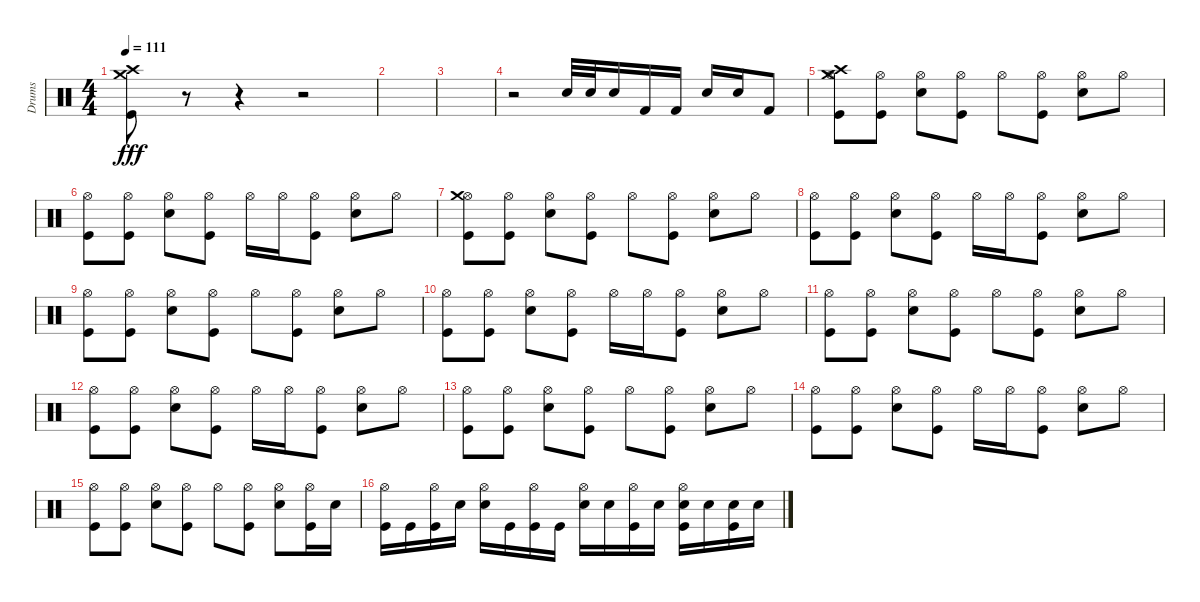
\track ("Drums" "Drums") {instrument percussion}
\staff {score}
\articulation defaults
\ts (4 4)
\tempo 111
\clef neutral
\ks c
("Crash high (hit)" "Crash medium (hit)" "Kick (hit)").8{dy fff} r.8 r.4 r.2 |
|
|
r.2 "Snare (hit) 2".32 "Snare (hit) 2".32 "Snare (hit) 2".16 "Kick (hit) 2".16 "Kick (hit) 2".16 "Snare (hit) 2".16 "Snare (hit) 2".16 "Kick (hit) 2".8 |
("Hi-Hat (open)" "Crash high (hit)" "Crash medium (hit)" "Kick (hit)").8 ("Hi-Hat (open)" "Kick (hit)").8 ("Hi-Hat (open)" "Snare (hit) 2").8 ("Hi-Hat (open)" "Kick (hit)").8 "Hi-Hat (open)".8 ("Hi-Hat (open)" "Kick (hit)").8 ("Hi-Hat (open)" "Snare (hit) 2").8 "Hi-Hat (open)".8 |
("Hi-Hat (open)" "Kick (hit)").8 ("Hi-Hat (open)" "Kick (hit)").8 ("Hi-Hat (open)" "Snare (hit) 2").8 ("Hi-Hat (open)" "Kick (hit)").8 "Hi-Hat (open)".16 "Hi-Hat (open)".16 ("Hi-Hat (open)" "Kick (hit)").8 ("Hi-Hat (open)" "Snare (hit) 2").8 "Hi-Hat (open)".8 |
("Hi-Hat (open)" "Crash medium (hit)" "Kick (hit)").8 ("Hi-Hat (open)" "Kick (hit)").8 ("Hi-Hat (open)" "Snare (hit) 2").8 ("Hi-Hat (open)" "Kick (hit)").8 "Hi-Hat (open)".8 ("Hi-Hat (open)" "Kick (hit)").8 ("Hi-Hat (open)" "Snare (hit) 2").8 "Hi-Hat (open)".8 |
("Hi-Hat (open)" "Kick (hit)").8 ("Hi-Hat (open)" "Kick (hit)").8 ("Hi-Hat (open)" "Snare (hit) 2").8 ("Hi-Hat (open)" "Kick (hit)").8 "Hi-Hat (open)".16 "Hi-Hat (open)".16 ("Hi-Hat (open)" "Kick (hit)").8 ("Hi-Hat (open)" "Snare (hit) 2").8 "Hi-Hat (open)".8 |
("Hi-Hat (open)" "Kick (hit)").8 ("Hi-Hat (open)" "Kick (hit)").8 ("Hi-Hat (open)" "Snare (hit) 2").8 ("Hi-Hat (open)" "Kick (hit)").8 "Hi-Hat (open)".8 ("Hi-Hat (open)" "Kick (hit)").8 ("Hi-Hat (open)" "Snare (hit) 2").8 "Hi-Hat (open)".8 |
("Hi-Hat (open)" "Kick (hit)").8 ("Hi-Hat (open)" "Kick (hit)").8 ("Hi-Hat (open)" "Snare (hit) 2").8 ("Hi-Hat (open)" "Kick (hit)").8 "Hi-Hat (open)".16 "Hi-Hat (open)".16 ("Hi-Hat (open)" "Kick (hit)").8 ("Hi-Hat (open)" "Snare (hit) 2").8 "Hi-Hat (open)".8 |
("Hi-Hat (open)" "Kick (hit)").8 ("Hi-Hat (open)" "Kick (hit)").8 ("Hi-Hat (open)" "Snare (hit) 2").8 ("Hi-Hat (open)" "Kick (hit)").8 "Hi-Hat (open)".8 ("Hi-Hat (open)" "Kick (hit)").8 ("Hi-Hat (open)" "Snare (hit) 2").8 "Hi-Hat (open)".8 |
("Hi-Hat (open)" "Kick (hit)").8 ("Hi-Hat (open)" "Kick (hit)").8 ("Hi-Hat (open)" "Snare (hit) 2").8 ("Hi-Hat (open)" "Kick (hit)").8 "Hi-Hat (open)".16 "Hi-Hat (open)".16 ("Hi-Hat (open)" "Kick (hit)").8 ("Hi-Hat (open)" "Snare (hit) 2").8 "Hi-Hat (open)".8 |
("Hi-Hat (open)" "Kick (hit)").8 ("Hi-Hat (open)" "Kick (hit)").8 ("Hi-Hat (open)" "Snare (hit) 2").8 ("Hi-Hat (open)" "Kick (hit)").8 "Hi-Hat (open)".8 ("Hi-Hat (open)" "Kick (hit)").8 ("Hi-Hat (open)" "Snare (hit) 2").8 "Hi-Hat (open)".8 |
("Hi-Hat (open)" "Kick (hit)").8 ("Hi-Hat (open)" "Kick (hit)").8 ("Hi-Hat (open)" "Snare (hit) 2").8 ("Hi-Hat (open)" "Kick (hit)").8 "Hi-Hat (open)".16 "Hi-Hat (open)".16 ("Hi-Hat (open)" "Kick (hit)").8 ("Hi-Hat (open)" "Snare (hit) 2").8 "Hi-Hat (open)".8 |
("Hi-Hat (open)" "Kick (hit)").8 ("Hi-Hat (open)" "Kick (hit)").8 ("Hi-Hat (open)" "Snare (hit) 2").8 ("Hi-Hat (open)" "Kick (hit)").8 "Hi-Hat (open)".8 ("Hi-Hat (open)" "Kick (hit)").8 ("Hi-Hat (open)" "Snare (hit) 2").8 ("Hi-Hat (open)" "Kick (hit)").16 "Snare (hit) 2".16 |
("Hi-Hat (open)" "Kick (hit)").16 "Kick (hit)".16 ("Hi-Hat (open)" "Kick (hit)").16 "Snare (hit) 2".16 ("Hi-Hat (open)" "Snare (hit) 2").16 "Kick (hit)".16 ("Hi-Hat (open)" "Kick (hit)").16 "Kick (hit)".16 ("Hi-Hat (open)" "Snare (hit) 2").16 "Snare (hit) 2".16 ("Hi-Hat (open)" "Kick (hit)").16 "Snare (hit) 2".16 ("Hi-Hat (open)" "Snare (hit) 2" "Kick (hit)").16 "Snare (hit) 2".16 ("Snare (hit) 2" "Kick (hit)").16 "Snare (hit) 2".16
